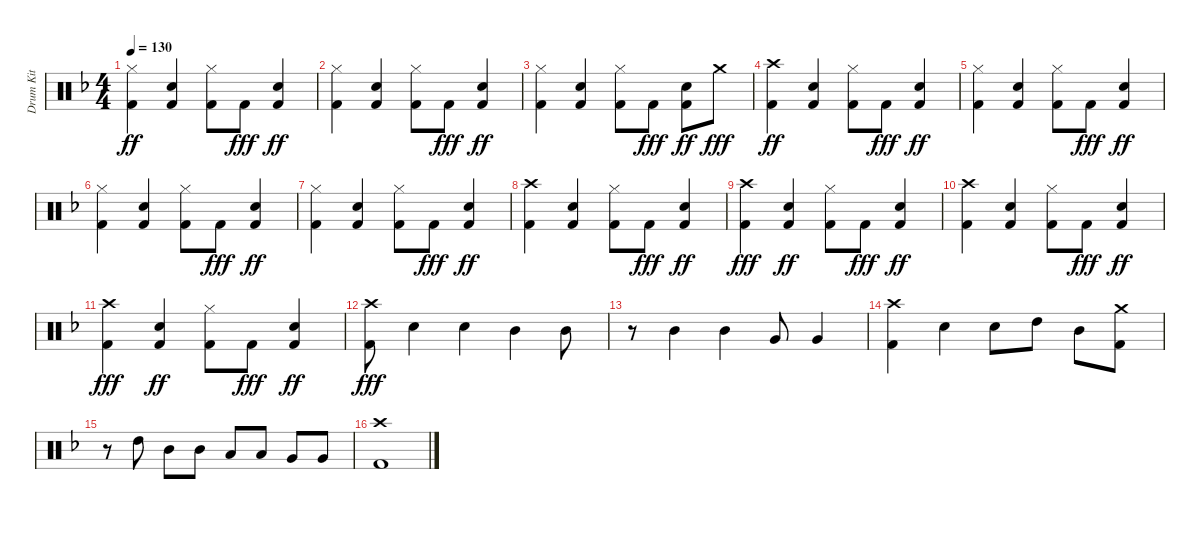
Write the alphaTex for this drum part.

\track ("Drum Kit" "Drum Kit") {instrument percussion}
\staff {score}
\articulation defaults
\ts (4 4)
\tempo 130
\clef neutral
\ks dminor
("Kick (hit) 2" "Hi-Hat (closed)").4{dy ff} ("Kick (hit) 2" "Electric Snare (hit)").4 ("Kick (hit) 2" "Hi-Hat (closed)").8 "Kick (hit) 2".8{dy fff} ("Kick (hit) 2" "Electric Snare (hit)").4{dy ff} |
("Kick (hit) 2" "Hi-Hat (closed)").4 ("Kick (hit) 2" "Electric Snare (hit)").4 ("Kick (hit) 2" "Hi-Hat (closed)").8 "Kick (hit) 2".8{dy fff} ("Kick (hit) 2" "Electric Snare (hit)").4{dy ff} |
("Kick (hit) 2" "Hi-Hat (closed)").4 ("Kick (hit) 2" "Electric Snare (hit)").4 ("Kick (hit) 2" "Hi-Hat (closed)").8 "Kick (hit) 2".8{dy fff} ("Kick (hit) 2" "Electric Snare (hit)").8{dy ff} "Crash medium (hit)".8{dy fff} |
("Kick (hit) 2" "Crash high (hit)").4{dy ff volume 13} ("Kick (hit) 2" "Electric Snare (hit)").4 ("Kick (hit) 2" "Hi-Hat (closed)").8 "Kick (hit) 2".8{dy fff} ("Kick (hit) 2" "Electric Snare (hit)").4{dy ff} |
("Kick (hit) 2" "Hi-Hat (closed)").4 ("Kick (hit) 2" "Electric Snare (hit)").4 ("Kick (hit) 2" "Hi-Hat (closed)").8 "Kick (hit) 2".8{dy fff} ("Kick (hit) 2" "Electric Snare (hit)").4{dy ff} |
("Kick (hit) 2" "Hi-Hat (closed)").4 ("Kick (hit) 2" "Electric Snare (hit)").4 ("Kick (hit) 2" "Hi-Hat (closed)").8 "Kick (hit) 2".8{dy fff} ("Kick (hit) 2" "Electric Snare (hit)").4{dy ff} |
("Kick (hit) 2" "Hi-Hat (closed)").4 ("Kick (hit) 2" "Electric Snare (hit)").4 ("Kick (hit) 2" "Hi-Hat (closed)").8 "Kick (hit) 2".8{dy fff} ("Kick (hit) 2" "Electric Snare (hit)").4{dy ff} |
("Kick (hit) 2" "Crash high (hit)").4 ("Kick (hit) 2" "Electric Snare (hit)").4 ("Kick (hit) 2" "Hi-Hat (closed)").8 "Kick (hit) 2".8{dy fff} ("Kick (hit) 2" "Electric Snare (hit)").4{dy ff} |
("Kick (hit) 2" "Crash high (hit)").4{dy fff} ("Kick (hit) 2" "Electric Snare (hit)").4{dy ff} ("Kick (hit) 2" "Hi-Hat (closed)").8 "Kick (hit) 2".8{dy fff} ("Kick (hit) 2" "Electric Snare (hit)").4{dy ff} |
("Kick (hit) 2" "Crash high (hit)").4 ("Kick (hit) 2" "Electric Snare (hit)").4 ("Kick (hit) 2" "Hi-Hat (closed)").8 "Kick (hit) 2".8{dy fff} ("Kick (hit) 2" "Electric Snare (hit)").4{dy ff} |
("Kick (hit) 2" "Crash high (hit)").4{dy fff} ("Kick (hit) 2" "Electric Snare (hit)").4{dy ff} ("Kick (hit) 2" "Hi-Hat (closed)").8 "Kick (hit) 2".8{dy fff} ("Kick (hit) 2" "Electric Snare (hit)").4{dy ff} |
("Crash high (hit)" "Kick (hit) 2").8{dy fff} "Electric Snare (hit)".4 "Electric Snare (hit)".4 "Mid Tom (hit)".4 "Mid Tom (hit)".8 |
r.8 "Mid Tom (hit)".4 "Mid Tom (hit)".4 "Very Low Tom (hit)".8 "Very Low Tom (hit)".4 |
("Kick (hit) 2" "Crash high (hit)").4 "Electric Snare (hit)".4 "Electric Snare (hit)".8 "High Tom (hit)".8 "Mid Tom (hit)".8 ("Kick (hit) 2" "Crash medium (hit)").8 |
r.8 "High Tom (hit)".8 "Mid Tom (hit)".8 "Mid Tom (hit)".8 "Low Tom (hit)".8 "Low Tom (hit)".8 "Very Low Tom (hit)".8 "Very Low Tom (hit)".8 |
("Kick (hit) 2" "Crash high (hit)").1
